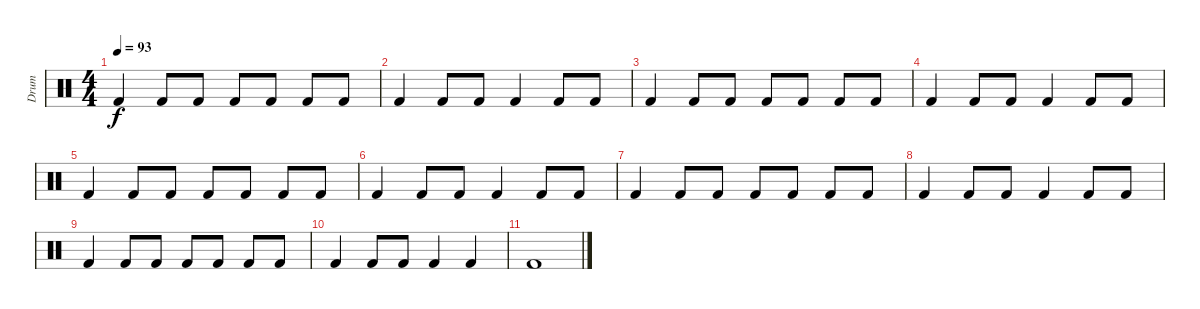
\track ("Drum" "Drum") {instrument percussion}
\staff {score}
\articulation defaults
\ts (4 4)
\tempo 93
\clef neutral
\ks c "Kick (hit) 2".4{dy f} "Kick (hit) 2".8 "Kick (hit) 2".8 "Kick (hit) 2".8 "Kick (hit) 2".8 "Kick (hit) 2".8 "Kick (hit) 2".8
|
"Kick (hit) 2".4 "Kick (hit) 2".8 "Kick (hit) 2".8 "Kick (hit) 2".4 "Kick (hit) 2".8 "Kick (hit) 2".8 |
"Kick (hit) 2".4 "Kick (hit) 2".8 "Kick (hit) 2".8 "Kick (hit) 2".8 "Kick (hit) 2".8 "Kick (hit) 2".8 "Kick (hit) 2".8 |
"Kick (hit) 2".4 "Kick (hit) 2".8 "Kick (hit) 2".8 "Kick (hit) 2".4 "Kick (hit) 2".8 "Kick (hit) 2".8 |
"Kick (hit) 2".4 "Kick (hit) 2".8 "Kick (hit) 2".8 "Kick (hit) 2".8 "Kick (hit) 2".8 "Kick (hit) 2".8 "Kick (hit) 2".8 |
"Kick (hit) 2".4 "Kick (hit) 2".8 "Kick (hit) 2".8 "Kick (hit) 2".4 "Kick (hit) 2".8 "Kick (hit) 2".8 |
"Kick (hit) 2".4 "Kick (hit) 2".8 "Kick (hit) 2".8 "Kick (hit) 2".8 "Kick (hit) 2".8 "Kick (hit) 2".8 "Kick (hit) 2".8 |
"Kick (hit) 2".4 "Kick (hit) 2".8 "Kick (hit) 2".8 "Kick (hit) 2".4 "Kick (hit) 2".8 "Kick (hit) 2".8 |
"Kick (hit) 2".4 "Kick (hit) 2".8 "Kick (hit) 2".8 "Kick (hit) 2".8 "Kick (hit) 2".8 "Kick (hit) 2".8 "Kick (hit) 2".8 |
"Kick (hit) 2".4 "Kick (hit) 2".8 "Kick (hit) 2".8 "Kick (hit) 2".4 "Kick (hit) 2".4 |
"Kick (hit) 2".1
